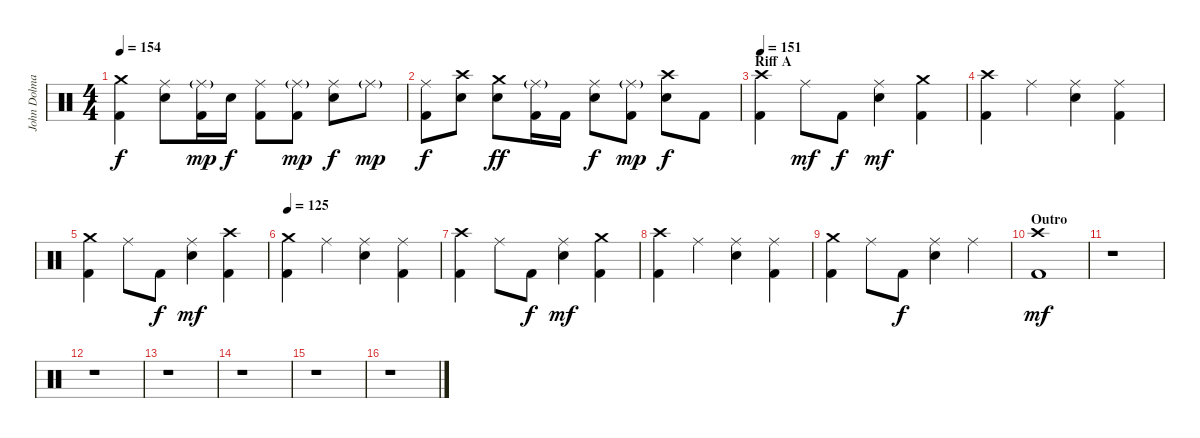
\track ("John Dolmayan" "John Dolma") {instrument percussion}
\staff {score}
\articulation defaults
\ts (4 4)
\tempo 154
\clef neutral
\ks c
("Crash medium (hit)" "Kick (hit) 2").4{dy f} ("Ride (middle)" "Electric Snare (hit)").8 ("Ride (middle)"{g} "Kick (hit) 2").16{dy mp} "Electric Snare (hit)".16{dy f} ("Ride (middle)" "Kick (hit) 2").8 ("Ride (middle)"{g} "Kick (hit) 2").8{dy mp} ("Ride (middle)" "Electric Snare (hit)").8{dy f} "Ride (middle)"{g}.8{dy mp} |
("Ride (middle)" "Kick (hit) 2").8{dy f} ("Crash high (hit)" "Electric Snare (hit)").8 ("Crash medium (hit)" "Electric Snare (hit)").8{dy ff} ("Ride (middle)"{g} "Kick (hit) 2").16 "Kick (hit) 2".16 ("Ride (middle)" "Electric Snare (hit)").8{dy f} ("Ride (middle)"{g} "Kick (hit) 2").8{dy mp} ("Crash high (hit)" "Electric Snare (hit)").8{dy f} "Kick (hit) 2".8 |
\section ("" "Riff A")
\tempo 151
("Crash high (hit)" "Kick (hit) 2").4 "Ride (middle)".8{dy mf} "Kick (hit) 2".8{dy f} ("Ride (middle)" "Electric Snare (hit)").4{dy mf} ("Crash medium (hit)" "Kick (hit) 2").4 |
("Crash high (hit)" "Kick (hit) 2").4 "Ride (middle)".4 ("Ride (middle)" "Electric Snare (hit)").4 ("Ride (middle)" "Kick (hit) 2").4 |
("Crash medium (hit)" "Kick (hit) 2").4 "Ride (middle)".8 "Kick (hit) 2".8{dy f} ("Ride (middle)" "Electric Snare (hit)").4{dy mf} ("Crash high (hit)" "Kick (hit) 2").4 |
\tempo 125
("Crash medium (hit)" "Kick (hit) 2").4 "Ride (middle)".4 ("Ride (middle)" "Electric Snare (hit)").4 ("Ride (middle)" "Kick (hit) 2").4 |
("Crash high (hit)" "Kick (hit) 2").4 "Ride (middle)".8 "Kick (hit) 2".8{dy f} ("Ride (middle)" "Electric Snare (hit)").4{dy mf} ("Crash medium (hit)" "Kick (hit) 2").4 |
("Crash high (hit)" "Kick (hit) 2").4 "Ride (middle)".4 ("Ride (middle)" "Electric Snare (hit)").4 ("Ride (middle)" "Kick (hit) 2").4 |
("Crash medium (hit)" "Kick (hit) 2").4 "Ride (middle)".8 "Kick (hit) 2".8{dy f} ("Ride (middle)" "Electric Snare (hit)").4 "Ride (middle)".4 |
\section ("" "Outro")
("Crash high (hit)" "Kick (hit) 2").1{dy mf} |
r.1 |
r.1 |
r.1 |
r.1 |
r.1 |
r.1
